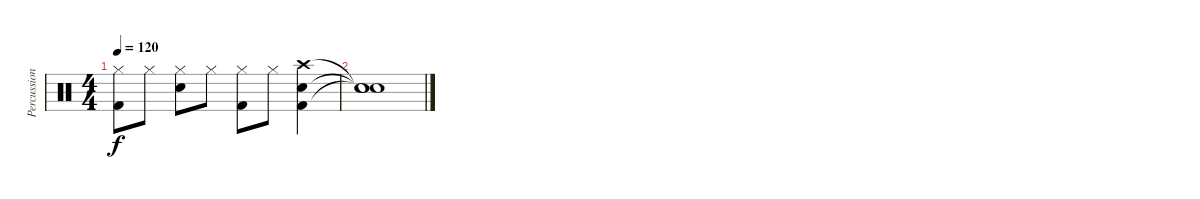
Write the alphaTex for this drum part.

\track ("Percussion" "Percussion") {instrument percussion}
\staff {score}
\articulation defaults
\ts (4 4)
\tempo 120
\clef neutral
\ks c
("Hi-Hat (closed)" "Kick (hit) 2").8{dy f} "Hi-Hat (closed)".8 ("Hi-Hat (closed)" "Snare (hit) 2").8 "Hi-Hat (closed)".8 ("Hi-Hat (closed)" "Kick (hit) 2").8 "Hi-Hat (closed)".8 ("Crash high (hit)" "Snare (hit) 2" "Kick (hit) 2").4 |
("Snare (hit)"{t} "Snare (hit)"{t} "Snare (hit)"{t}).1
